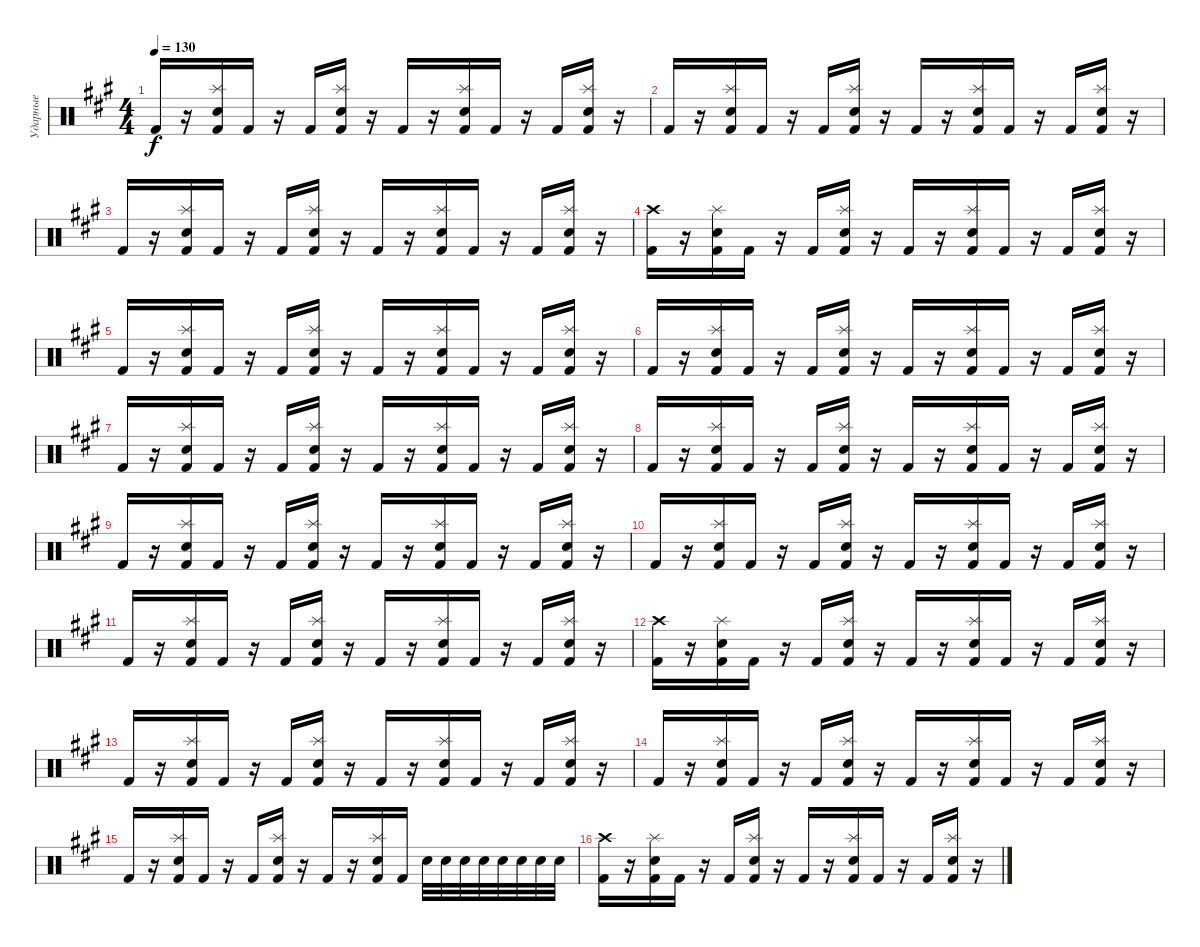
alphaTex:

\track ("Ударные" "Ударные") {instrument percussion}
\staff {score}
\articulation defaults
\ts (4 4)
\tempo 130
\clef neutral
\ks f#minor "Kick (hit) 2".16{dy f}
r.16 ("Splash (hit)" "Snare (hit) 2" "Kick (hit) 2").16 "Kick (hit) 2".16 r.16 "Kick (hit) 2".16 ("Splash (hit)" "Snare (hit) 2" "Kick (hit) 2").16 r.16 "Kick (hit) 2".16 r.16 ("Splash (hit)" "Snare (hit) 2" "Kick (hit) 2").16 "Kick (hit) 2".16 r.16 "Kick (hit) 2".16 ("Splash (hit)" "Snare (hit) 2" "Kick (hit) 2").16 r.16 |
"Kick (hit) 2".16 r.16 ("Splash (hit)" "Snare (hit) 2" "Kick (hit) 2").16 "Kick (hit) 2".16 r.16 "Kick (hit) 2".16 ("Splash (hit)" "Snare (hit) 2" "Kick (hit) 2").16 r.16 "Kick (hit) 2".16 r.16 ("Splash (hit)" "Snare (hit) 2" "Kick (hit) 2").16 "Kick (hit) 2".16 r.16 "Kick (hit) 2".16 ("Splash (hit)" "Snare (hit) 2" "Kick (hit) 2").16 r.16 |
"Kick (hit) 2".16 r.16 ("Splash (hit)" "Snare (hit) 2" "Kick (hit) 2").16 "Kick (hit) 2".16 r.16 "Kick (hit) 2".16 ("Splash (hit)" "Snare (hit) 2" "Kick (hit) 2").16 r.16 "Kick (hit) 2".16 r.16 ("Splash (hit)" "Snare (hit) 2" "Kick (hit) 2").16 "Kick (hit) 2".16 r.16 "Kick (hit) 2".16 ("Splash (hit)" "Snare (hit) 2" "Kick (hit) 2").16 r.16 |
("Crash high (hit)" "Kick (hit) 2").16 r.16 ("Splash (hit)" "Snare (hit) 2" "Kick (hit) 2").16 "Kick (hit) 2".16 r.16 "Kick (hit) 2".16 ("Splash (hit)" "Snare (hit) 2" "Kick (hit) 2").16 r.16 "Kick (hit) 2".16 r.16 ("Splash (hit)" "Snare (hit) 2" "Kick (hit) 2").16 "Kick (hit) 2".16 r.16 "Kick (hit) 2".16 ("Splash (hit)" "Snare (hit) 2" "Kick (hit) 2").16 r.16 |
"Kick (hit) 2".16 r.16 ("Splash (hit)" "Snare (hit) 2" "Kick (hit) 2").16 "Kick (hit) 2".16 r.16 "Kick (hit) 2".16 ("Splash (hit)" "Snare (hit) 2" "Kick (hit) 2").16 r.16 "Kick (hit) 2".16 r.16 ("Splash (hit)" "Snare (hit) 2" "Kick (hit) 2").16 "Kick (hit) 2".16 r.16 "Kick (hit) 2".16 ("Splash (hit)" "Snare (hit) 2" "Kick (hit) 2").16 r.16 |
"Kick (hit) 2".16 r.16 ("Splash (hit)" "Snare (hit) 2" "Kick (hit) 2").16 "Kick (hit) 2".16 r.16 "Kick (hit) 2".16 ("Splash (hit)" "Snare (hit) 2" "Kick (hit) 2").16 r.16 "Kick (hit) 2".16 r.16 ("Splash (hit)" "Snare (hit) 2" "Kick (hit) 2").16 "Kick (hit) 2".16 r.16 "Kick (hit) 2".16 ("Splash (hit)" "Snare (hit) 2" "Kick (hit) 2").16 r.16 |
"Kick (hit) 2".16 r.16 ("Splash (hit)" "Snare (hit) 2" "Kick (hit) 2").16 "Kick (hit) 2".16 r.16 "Kick (hit) 2".16 ("Splash (hit)" "Snare (hit) 2" "Kick (hit) 2").16 r.16 "Kick (hit) 2".16 r.16 ("Splash (hit)" "Snare (hit) 2" "Kick (hit) 2").16 "Kick (hit) 2".16 r.16 "Kick (hit) 2".16 ("Splash (hit)" "Snare (hit) 2" "Kick (hit) 2").16 r.16 |
"Kick (hit) 2".16 r.16 ("Splash (hit)" "Snare (hit) 2" "Kick (hit) 2").16 "Kick (hit) 2".16 r.16 "Kick (hit) 2".16 ("Splash (hit)" "Snare (hit) 2" "Kick (hit) 2").16 r.16 "Kick (hit) 2".16 r.16 ("Splash (hit)" "Snare (hit) 2" "Kick (hit) 2").16 "Kick (hit) 2".16 r.16 "Kick (hit) 2".16 ("Splash (hit)" "Snare (hit) 2" "Kick (hit) 2").16 r.16 |
"Kick (hit) 2".16 r.16 ("Splash (hit)" "Snare (hit) 2" "Kick (hit) 2").16 "Kick (hit) 2".16 r.16 "Kick (hit) 2".16 ("Splash (hit)" "Snare (hit) 2" "Kick (hit) 2").16 r.16 "Kick (hit) 2".16 r.16 ("Splash (hit)" "Snare (hit) 2" "Kick (hit) 2").16 "Kick (hit) 2".16 r.16 "Kick (hit) 2".16 ("Splash (hit)" "Snare (hit) 2" "Kick (hit) 2").16 r.16 |
"Kick (hit) 2".16 r.16 ("Splash (hit)" "Snare (hit) 2" "Kick (hit) 2").16 "Kick (hit) 2".16 r.16 "Kick (hit) 2".16 ("Splash (hit)" "Snare (hit) 2" "Kick (hit) 2").16 r.16 "Kick (hit) 2".16 r.16 ("Splash (hit)" "Snare (hit) 2" "Kick (hit) 2").16 "Kick (hit) 2".16 r.16 "Kick (hit) 2".16 ("Splash (hit)" "Snare (hit) 2" "Kick (hit) 2").16 r.16 |
"Kick (hit) 2".16 r.16 ("Splash (hit)" "Snare (hit) 2" "Kick (hit) 2").16 "Kick (hit) 2".16 r.16 "Kick (hit) 2".16 ("Splash (hit)" "Snare (hit) 2" "Kick (hit) 2").16 r.16 "Kick (hit) 2".16 r.16 ("Splash (hit)" "Snare (hit) 2" "Kick (hit) 2").16 "Kick (hit) 2".16 r.16 "Kick (hit) 2".16 ("Splash (hit)" "Snare (hit) 2" "Kick (hit) 2").16 r.16 |
("Crash high (hit)" "Kick (hit) 2").16 r.16 ("Splash (hit)" "Snare (hit) 2" "Kick (hit) 2").16 "Kick (hit) 2".16 r.16 "Kick (hit) 2".16 ("Splash (hit)" "Snare (hit) 2" "Kick (hit) 2").16 r.16 "Kick (hit) 2".16 r.16 ("Splash (hit)" "Snare (hit) 2" "Kick (hit) 2").16 "Kick (hit) 2".16 r.16 "Kick (hit) 2".16 ("Splash (hit)" "Snare (hit) 2" "Kick (hit) 2").16 r.16 |
"Kick (hit) 2".16 r.16 ("Splash (hit)" "Snare (hit) 2" "Kick (hit) 2").16 "Kick (hit) 2".16 r.16 "Kick (hit) 2".16 ("Splash (hit)" "Snare (hit) 2" "Kick (hit) 2").16 r.16 "Kick (hit) 2".16 r.16 ("Splash (hit)" "Snare (hit) 2" "Kick (hit) 2").16 "Kick (hit) 2".16 r.16 "Kick (hit) 2".16 ("Splash (hit)" "Snare (hit) 2" "Kick (hit) 2").16 r.16 |
"Kick (hit) 2".16 r.16 ("Splash (hit)" "Snare (hit) 2" "Kick (hit) 2").16 "Kick (hit) 2".16 r.16 "Kick (hit) 2".16 ("Splash (hit)" "Snare (hit) 2" "Kick (hit) 2").16 r.16 "Kick (hit) 2".16 r.16 ("Splash (hit)" "Snare (hit) 2" "Kick (hit) 2").16 "Kick (hit) 2".16 r.16 "Kick (hit) 2".16 ("Splash (hit)" "Snare (hit) 2" "Kick (hit) 2").16 r.16 |
"Kick (hit) 2".16 r.16 ("Splash (hit)" "Snare (hit) 2" "Kick (hit) 2").16 "Kick (hit) 2".16 r.16 "Kick (hit) 2".16 ("Splash (hit)" "Snare (hit) 2" "Kick (hit) 2").16 r.16 "Kick (hit) 2".16 r.16 ("Splash (hit)" "Snare (hit) 2" "Kick (hit) 2").16 "Kick (hit) 2".16 "Snare (hit) 2".32 "Snare (hit) 2".32 "Snare (hit) 2".32 "Snare (hit) 2".32 "Snare (hit) 2".32 "Snare (hit) 2".32 "Snare (hit) 2".32 "Snare (hit) 2".32 |
("Crash high (hit)" "Kick (hit) 2").16 r.16 ("Splash (hit)" "Snare (hit) 2" "Kick (hit) 2").16 "Kick (hit) 2".16 r.16 "Kick (hit) 2".16 ("Splash (hit)" "Snare (hit) 2" "Kick (hit) 2").16 r.16 "Kick (hit) 2".16 r.16 ("Splash (hit)" "Snare (hit) 2" "Kick (hit) 2").16 "Kick (hit) 2".16 r.16 "Kick (hit) 2".16 ("Splash (hit)" "Snare (hit) 2" "Kick (hit) 2").16 r.16
